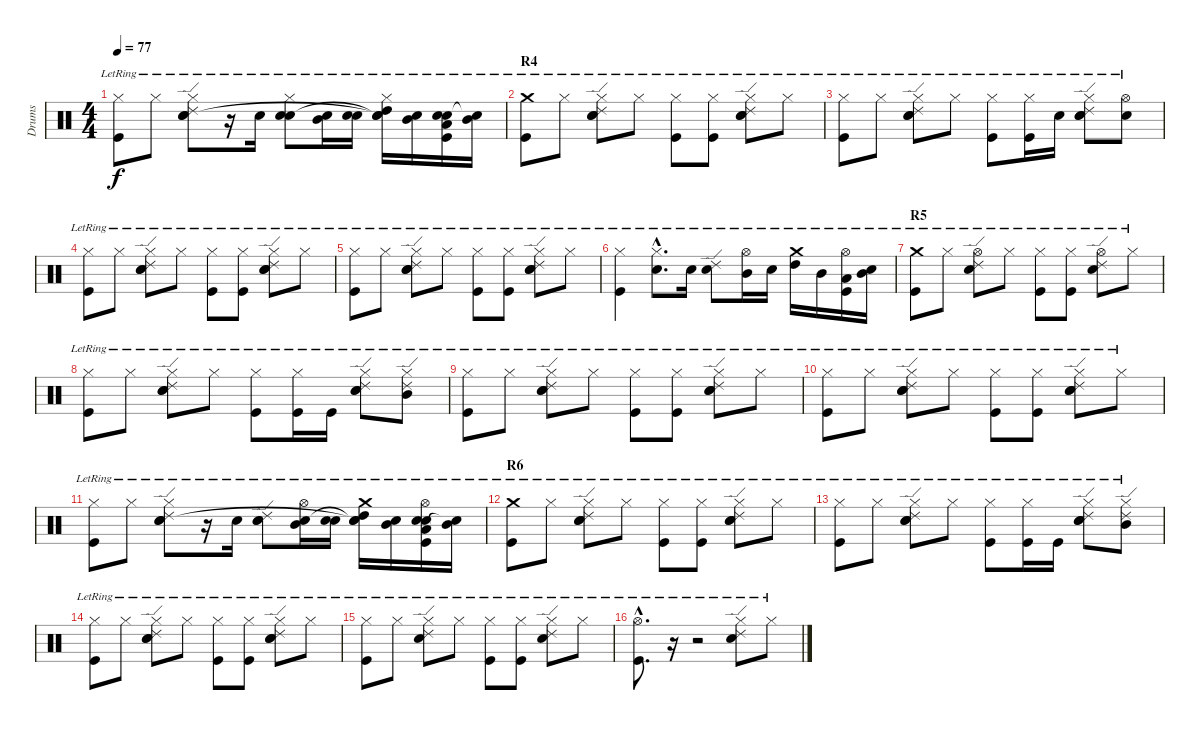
\track ("Drums" "Drums") {instrument percussion}
\staff {score}
\articulation defaults
\ts (4 4)
\tempo 77
\clef neutral
\ks c
("Hi-Hat (closed)"{lr} "Kick (hit)"{lr}).8{dy f} "Hi-Hat (closed)"{lr}.8 ("Hi-Hat (closed)"{lr} "Snare (hit) 2"{lr} "Ride (edge) 2"{lr} "Electric Snare (hit)"{lr}).8 r.16 "Snare (hit) 2"{lr}.16 ("Hi-Hat (closed)"{lr} "Snare (hit) 2"{lr} "Electric Snare (hit)"{lr}).8 ("Mid Tom (hit)"{lr} "Snare (hit) 2"{lr}).16 ("Snare (hit) 2"{lr} "Electric Snare (hit)"{lr}).16 ("Hi-Hat (closed)"{lr} "High Tom (hit)"{lr} "Snare (hit)"{t} "Snare (hit)"{t}).16 ("Mid Tom (hit)"{lr} "Snare (hit) 2"{lr}).16 ("Low Tom (hit)"{lr} "Snare (hit) 2"{lr} "Electric Snare (hit)"{lr} "Kick (hit)"{lr}).16 ("Mid Tom (hit)"{lr} "Snare (hit)"{t}).16 |
\section ("" "R4")
("Crash medium (hit)"{lr} "Kick (hit)"{lr}).8 "Hi-Hat (closed)"{lr}.8 ("Hi-Hat (closed)"{lr} "Snare (hit) 2"{lr} "Ride (edge) 2"{lr} "Electric Snare (hit)"{lr}).8 "Hi-Hat (closed)"{lr}.8 ("Hi-Hat (closed)"{lr} "Kick (hit)"{lr}).8 ("Hi-Hat (closed)"{lr} "Kick (hit)"{lr}).8 ("Hi-Hat (closed)"{lr} "Snare (hit) 2"{lr} "Ride (edge) 2"{lr} "Electric Snare (hit)"{lr}).8 "Hi-Hat (closed)"{lr}.8 |
("Hi-Hat (closed)"{lr} "Kick (hit)"{lr}).8 "Hi-Hat (closed)"{lr}.8 ("Hi-Hat (closed)"{lr} "Snare (hit) 2"{lr} "Ride (edge) 2"{lr} "Electric Snare (hit)"{lr}).8 "Hi-Hat (closed)"{lr}.8 ("Hi-Hat (closed)"{lr} "Kick (hit)"{lr}).8 ("Hi-Hat (closed)"{lr} "Kick (hit)"{lr}).16 "Snare (hit) 2"{lr}.16 ("Hi-Hat (closed)"{lr} "Snare (hit) 2"{lr} "Ride (edge) 2"{lr} "Electric Snare (hit)"{lr}).8 ("Hi-Hat (open)"{lr} "Electric Snare (hit)"{lr}).8 |
("Hi-Hat (closed)"{lr} "Kick (hit)"{lr}).8 "Hi-Hat (closed)"{lr}.8 ("Hi-Hat (closed)"{lr} "Snare (hit) 2"{lr} "Ride (edge) 2"{lr} "Electric Snare (hit)"{lr}).8 "Hi-Hat (closed)"{lr}.8 ("Hi-Hat (closed)"{lr} "Kick (hit)"{lr}).8 ("Hi-Hat (closed)"{lr} "Kick (hit)"{lr}).8 ("Hi-Hat (closed)"{lr} "Snare (hit) 2"{lr} "Ride (edge) 2"{lr} "Electric Snare (hit)"{lr}).8 "Hi-Hat (closed)"{lr}.8 |
("Hi-Hat (closed)"{lr} "Kick (hit)"{lr}).8 "Hi-Hat (closed)"{lr}.8 ("Hi-Hat (closed)"{lr} "Snare (hit) 2"{lr} "Ride (edge) 2"{lr} "Electric Snare (hit)"{lr}).8 "Hi-Hat (closed)"{lr}.8 ("Hi-Hat (closed)"{lr} "Kick (hit)"{lr}).8 ("Hi-Hat (closed)"{lr} "Kick (hit)"{lr}).8 ("Hi-Hat (closed)"{lr} "Snare (hit) 2"{lr} "Ride (edge) 2"{lr} "Electric Snare (hit)"{lr}).8 "Hi-Hat (closed)"{lr}.8 |
("Hi-Hat (closed)"{lr} "Kick (hit)"{lr}).4 ("Hi-Hat (closed)"{hac lr} "Snare (hit) 2"{hac lr}).8{d} "Snare (hit) 2"{lr}.16 ("Ride (edge) 2"{lr} "Snare (hit) 2"{lr}).8 ("Hi-Hat (open)"{lr} "Mid Tom (hit)"{lr}).16 "Snare (hit) 2"{lr}.16 ("Crash medium (hit)"{lr} "High Tom (hit)"{lr}).16 "Mid Tom (hit)"{lr}.16 ("Hi-Hat (open)"{lr} "Low Tom (hit)"{lr} "Kick (hit)"{lr}).16 ("Snare (hit) 2"{lr} "Mid Tom (hit)"{lr}).16 |
\section ("" "R5")
("Crash medium (hit)"{lr} "Kick (hit)"{lr}).8 "Hi-Hat (closed)"{lr}.8 ("Hi-Hat (open)"{lr} "Snare (hit) 2"{lr} "Ride (edge) 2"{lr}).8 "Hi-Hat (closed)"{lr}.8 ("Hi-Hat (closed)"{lr} "Kick (hit)"{lr}).8 ("Hi-Hat (closed)"{lr} "Kick (hit)"{lr}).8 ("Hi-Hat (open)"{lr} "Snare (hit) 2"{lr} "Ride (edge) 2"{lr}).8 "Hi-Hat (closed)"{lr}.8 |
("Hi-Hat (closed)"{lr} "Kick (hit)"{lr}).8 "Hi-Hat (closed)"{lr}.8 ("Hi-Hat (closed)"{lr} "Snare (hit) 2"{lr} "Ride (edge) 2"{lr} "Electric Snare (hit)"{lr}).8 "Hi-Hat (closed)"{lr}.8 ("Hi-Hat (closed)"{lr} "Kick (hit)"{lr}).8 ("Hi-Hat (closed)"{lr} "Kick (hit)"{lr}).16 "Kick (hit)"{lr}.16 ("Hi-Hat (closed)"{lr} "Snare (hit) 2"{lr} "Ride (edge) 2"{lr} "Electric Snare (hit)"{lr}).8 ("Hi-Hat (closed)"{lr} "Mid Tom (hit)"{lr} "Ride (edge) 2"{lr}).8 |
("Hi-Hat (closed)"{lr} "Kick (hit)"{lr}).8 "Hi-Hat (closed)"{lr}.8 ("Hi-Hat (closed)"{lr} "Snare (hit) 2"{lr} "Ride (edge) 2"{lr} "Electric Snare (hit)"{lr}).8 "Hi-Hat (closed)"{lr}.8 ("Hi-Hat (closed)"{lr} "Kick (hit)"{lr}).8 ("Hi-Hat (closed)"{lr} "Kick (hit)"{lr}).8 ("Hi-Hat (closed)"{lr} "Snare (hit) 2"{lr} "Ride (edge) 2"{lr} "Electric Snare (hit)"{lr}).8 "Hi-Hat (closed)"{lr}.8 |
("Hi-Hat (closed)"{lr} "Kick (hit)"{lr}).8 "Hi-Hat (closed)"{lr}.8 ("Hi-Hat (closed)"{lr} "Snare (hit) 2"{lr} "Ride (edge) 2"{lr} "Electric Snare (hit)"{lr}).8 "Hi-Hat (closed)"{lr}.8 ("Hi-Hat (closed)"{lr} "Kick (hit)"{lr}).8 ("Hi-Hat (closed)"{lr} "Kick (hit)"{lr}).8 ("Hi-Hat (closed)"{lr} "Snare (hit) 2"{lr} "Ride (edge) 2"{lr} "Electric Snare (hit)"{lr}).8 "Hi-Hat (closed)"{lr}.8 |
("Hi-Hat (closed)"{lr} "Kick (hit)"{lr}).8 "Hi-Hat (closed)"{lr}.8 ("Hi-Hat (closed)"{lr} "Snare (hit) 2"{lr} "Ride (edge) 2"{lr} "Electric Snare (hit)"{lr}).8 r.16 "Snare (hit) 2"{lr}.16 ("Ride (edge) 2"{lr} "Snare (hit) 2"{lr} "Electric Snare (hit)"{lr}).8 ("Hi-Hat (open)"{lr} "Mid Tom (hit)"{lr} "Snare (hit) 2"{lr}).16 ("Snare (hit) 2"{lr} "Electric Snare (hit)"{lr}).16 ("Crash medium (hit)"{lr} "High Tom (hit)"{lr} "Snare (hit)"{t} "Snare (hit)"{t}).16 ("Mid Tom (hit)"{lr} "Snare (hit) 2"{lr}).16 ("Hi-Hat (open)"{lr} "Low Tom (hit)"{lr} "Snare (hit) 2"{lr} "Electric Snare (hit)"{lr} "Kick (hit)"{lr}).16 ("Mid Tom (hit)"{lr} "Snare (hit)"{t}).16 |
\section ("" "R6")
("Crash medium (hit)"{lr} "Kick (hit)"{lr}).8 "Hi-Hat (closed)"{lr}.8 ("Hi-Hat (closed)"{lr} "Snare (hit) 2"{lr} "Ride (edge) 2"{lr} "Electric Snare (hit)"{lr}).8 "Hi-Hat (closed)"{lr}.8 ("Hi-Hat (closed)"{lr} "Kick (hit)"{lr}).8 ("Hi-Hat (closed)"{lr} "Kick (hit)"{lr}).8 ("Hi-Hat (closed)"{lr} "Snare (hit) 2"{lr} "Ride (edge) 2"{lr} "Electric Snare (hit)"{lr}).8 "Hi-Hat (closed)"{lr}.8 |
("Hi-Hat (closed)"{lr} "Kick (hit)"{lr}).8 "Hi-Hat (closed)"{lr}.8 ("Hi-Hat (closed)"{lr} "Snare (hit) 2"{lr} "Ride (edge) 2"{lr} "Electric Snare (hit)"{lr}).8 "Hi-Hat (closed)"{lr}.8 ("Hi-Hat (closed)"{lr} "Kick (hit)"{lr}).8 ("Hi-Hat (closed)"{lr} "Kick (hit)"{lr}).16 "Kick (hit)"{lr}.16 ("Hi-Hat (closed)"{lr} "Snare (hit) 2"{lr} "Ride (edge) 2"{lr} "Electric Snare (hit)"{lr}).8 ("Hi-Hat (closed)"{lr} "Mid Tom (hit)"{lr} "Ride (edge) 2"{lr}).8 |
("Hi-Hat (closed)"{lr} "Kick (hit)"{lr}).8 "Hi-Hat (closed)"{lr}.8 ("Hi-Hat (closed)"{lr} "Snare (hit) 2"{lr} "Ride (edge) 2"{lr} "Electric Snare (hit)"{lr}).8 "Hi-Hat (closed)"{lr}.8 ("Hi-Hat (closed)"{lr} "Kick (hit)"{lr}).8 ("Hi-Hat (closed)"{lr} "Kick (hit)"{lr}).8 ("Hi-Hat (closed)"{lr} "Snare (hit) 2"{lr} "Ride (edge) 2"{lr} "Electric Snare (hit)"{lr}).8 "Hi-Hat (closed)"{lr}.8 |
("Hi-Hat (closed)"{lr} "Kick (hit)"{lr}).8 "Hi-Hat (closed)"{lr}.8 ("Hi-Hat (closed)"{lr} "Snare (hit) 2"{lr} "Ride (edge) 2"{lr}).8 "Hi-Hat (closed)"{lr}.8 ("Hi-Hat (closed)"{lr} "Kick (hit)"{lr}).8 ("Hi-Hat (closed)"{lr} "Kick (hit)"{lr}).8 ("Hi-Hat (closed)"{lr} "Snare (hit) 2"{lr} "Ride (edge) 2"{lr}).8 "Hi-Hat (closed)"{lr}.8 |
("Hi-Hat (open)"{hac lr} "Kick (hit)"{hac lr}).8{d} r.16 r.2 ("Hi-Hat (closed)"{lr} "Snare (hit) 2"{lr} "Ride (edge) 2"{lr}).8 "Hi-Hat (closed)"{lr}.8
